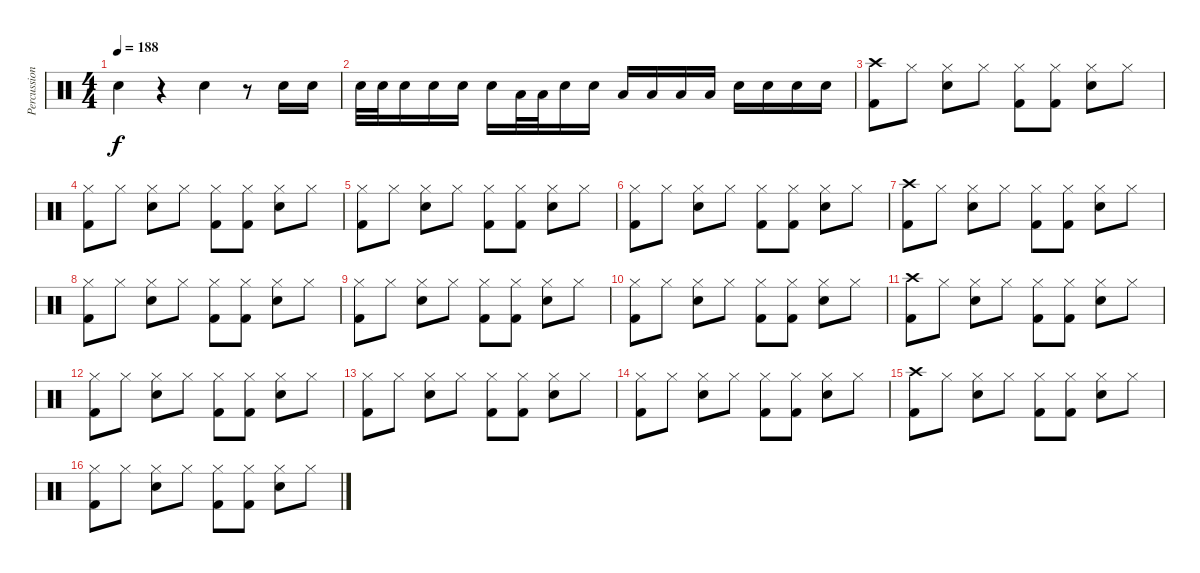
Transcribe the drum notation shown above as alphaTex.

\track ("Percussions" "Percussion") {instrument percussion}
\staff {score}
\articulation defaults
\ts (4 4)
\tempo 188
\clef neutral
\ks c "Electric Snare (hit)".4{dy f}
r.4 "Electric Snare (hit)".4 r.8 "Electric Snare (hit)".16 "Electric Snare (hit)".16 |
"Electric Snare (hit)".32 "Electric Snare (hit)".32 "Electric Snare (hit)".16 "Electric Snare (hit)".16 "Electric Snare (hit)".16 "Electric Snare (hit)".16 "Low Tom (hit)".32 "Low Tom (hit)".32 "Electric Snare (hit)".16 "Electric Snare (hit)".16 "Low Floor Tom (hit)".16 "Low Floor Tom (hit)".16 "Low Floor Tom (hit)".16 "Low Floor Tom (hit)".16 "Electric Snare (hit)".16 "Electric Snare (hit)".16 "Electric Snare (hit)".16 "Electric Snare (hit)".16 |
("Crash high (hit)" "Kick (hit) 2").8 "Hi-Hat (closed)".8 ("Hi-Hat (closed)" "Electric Snare (hit)").8 "Hi-Hat (closed)".8 ("Hi-Hat (closed)" "Kick (hit) 2").8 ("Hi-Hat (closed)" "Kick (hit) 2").8 ("Hi-Hat (closed)" "Electric Snare (hit)").8 "Hi-Hat (closed)".8 |
("Hi-Hat (closed)" "Kick (hit) 2").8 "Hi-Hat (closed)".8 ("Hi-Hat (closed)" "Electric Snare (hit)").8 "Hi-Hat (closed)".8 ("Hi-Hat (closed)" "Kick (hit) 2").8 ("Hi-Hat (closed)" "Kick (hit) 2").8 ("Hi-Hat (closed)" "Electric Snare (hit)").8 "Hi-Hat (closed)".8 |
("Hi-Hat (closed)" "Kick (hit) 2").8 "Hi-Hat (closed)".8 ("Hi-Hat (closed)" "Electric Snare (hit)").8 "Hi-Hat (closed)".8 ("Hi-Hat (closed)" "Kick (hit) 2").8 ("Hi-Hat (closed)" "Kick (hit) 2").8 ("Hi-Hat (closed)" "Electric Snare (hit)").8 "Hi-Hat (closed)".8 |
("Hi-Hat (closed)" "Kick (hit) 2").8 "Hi-Hat (closed)".8 ("Hi-Hat (closed)" "Electric Snare (hit)").8 "Hi-Hat (closed)".8 ("Hi-Hat (closed)" "Kick (hit) 2").8 ("Hi-Hat (closed)" "Kick (hit) 2").8 ("Hi-Hat (closed)" "Electric Snare (hit)").8 "Hi-Hat (closed)".8 |
("Crash high (hit)" "Kick (hit) 2").8 "Hi-Hat (closed)".8 ("Hi-Hat (closed)" "Electric Snare (hit)").8 "Hi-Hat (closed)".8 ("Hi-Hat (closed)" "Kick (hit) 2").8 ("Hi-Hat (closed)" "Kick (hit) 2").8 ("Hi-Hat (closed)" "Electric Snare (hit)").8 "Hi-Hat (closed)".8 |
("Hi-Hat (closed)" "Kick (hit) 2").8 "Hi-Hat (closed)".8 ("Hi-Hat (closed)" "Electric Snare (hit)").8 "Hi-Hat (closed)".8 ("Hi-Hat (closed)" "Kick (hit) 2").8 ("Hi-Hat (closed)" "Kick (hit) 2").8 ("Hi-Hat (closed)" "Electric Snare (hit)").8 "Hi-Hat (closed)".8 |
("Hi-Hat (closed)" "Kick (hit) 2").8 "Hi-Hat (closed)".8 ("Hi-Hat (closed)" "Electric Snare (hit)").8 "Hi-Hat (closed)".8 ("Hi-Hat (closed)" "Kick (hit) 2").8 ("Hi-Hat (closed)" "Kick (hit) 2").8 ("Hi-Hat (closed)" "Electric Snare (hit)").8 "Hi-Hat (closed)".8 |
("Hi-Hat (closed)" "Kick (hit) 2").8 "Hi-Hat (closed)".8 ("Hi-Hat (closed)" "Electric Snare (hit)").8 "Hi-Hat (closed)".8 ("Hi-Hat (closed)" "Kick (hit) 2").8 ("Hi-Hat (closed)" "Kick (hit) 2").8 ("Hi-Hat (closed)" "Electric Snare (hit)").8 "Hi-Hat (closed)".8 |
("Crash high (hit)" "Kick (hit) 2").8 "Hi-Hat (closed)".8 ("Hi-Hat (closed)" "Electric Snare (hit)").8 "Hi-Hat (closed)".8 ("Hi-Hat (closed)" "Kick (hit) 2").8 ("Hi-Hat (closed)" "Kick (hit) 2").8 ("Hi-Hat (closed)" "Electric Snare (hit)").8 "Hi-Hat (closed)".8 |
("Hi-Hat (closed)" "Kick (hit) 2").8 "Hi-Hat (closed)".8 ("Hi-Hat (closed)" "Electric Snare (hit)").8 "Hi-Hat (closed)".8 ("Hi-Hat (closed)" "Kick (hit) 2").8 ("Hi-Hat (closed)" "Kick (hit) 2").8 ("Hi-Hat (closed)" "Electric Snare (hit)").8 "Hi-Hat (closed)".8 |
("Hi-Hat (closed)" "Kick (hit) 2").8 "Hi-Hat (closed)".8 ("Hi-Hat (closed)" "Electric Snare (hit)").8 "Hi-Hat (closed)".8 ("Hi-Hat (closed)" "Kick (hit) 2").8 ("Hi-Hat (closed)" "Kick (hit) 2").8 ("Hi-Hat (closed)" "Electric Snare (hit)").8 "Hi-Hat (closed)".8 |
("Hi-Hat (closed)" "Kick (hit) 2").8 "Hi-Hat (closed)".8 ("Hi-Hat (closed)" "Electric Snare (hit)").8 "Hi-Hat (closed)".8 ("Hi-Hat (closed)" "Kick (hit) 2").8 ("Hi-Hat (closed)" "Kick (hit) 2").8 ("Hi-Hat (closed)" "Electric Snare (hit)").8 "Hi-Hat (closed)".8 |
("Crash high (hit)" "Kick (hit) 2").8 "Hi-Hat (closed)".8 ("Hi-Hat (closed)" "Electric Snare (hit)").8 "Hi-Hat (closed)".8 ("Hi-Hat (closed)" "Kick (hit) 2").8 ("Hi-Hat (closed)" "Kick (hit) 2").8 ("Hi-Hat (closed)" "Electric Snare (hit)").8 "Hi-Hat (closed)".8 |
("Hi-Hat (closed)" "Kick (hit) 2").8 "Hi-Hat (closed)".8 ("Hi-Hat (closed)" "Electric Snare (hit)").8 "Hi-Hat (closed)".8 ("Hi-Hat (closed)" "Kick (hit) 2").8 ("Hi-Hat (closed)" "Kick (hit) 2").8 ("Hi-Hat (closed)" "Electric Snare (hit)").8 "Hi-Hat (closed)".8
